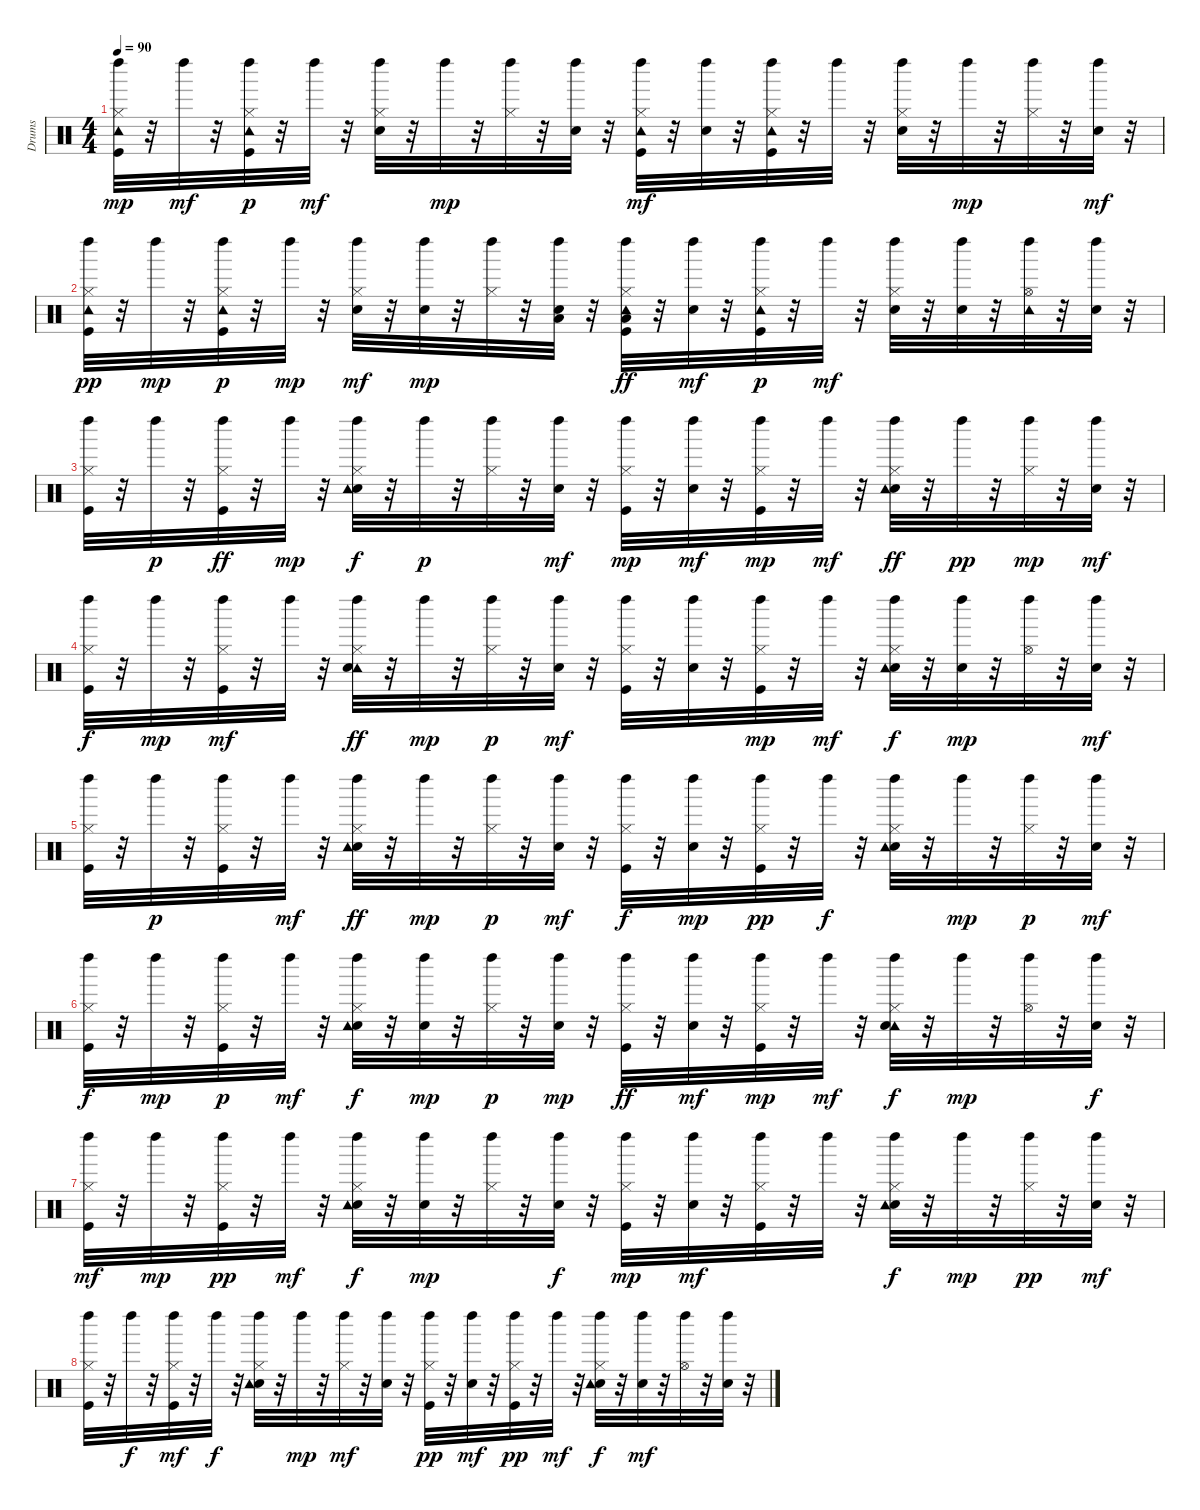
\track ("Drums" "Drums") {instrument percussion}
\staff {score}
\articulation defaults
\ts (4 4)
\tempo 90
\clef neutral
\ks c
("Kick (hit)" "Tambourine (hit)" "Left Maraca (hit)" "Hi-Hat (closed)").32{dy mp} r.32 "Left Maraca (hit)".32{dy mf} r.32 ("Left Maraca (hit)" "Kick (hit)" "Hi-Hat (closed)" "Tambourine (hit)").32{dy p} r.32 "Left Maraca (hit)".32{dy mf} r.32 ("Hi-Hat (closed)" "Electric Snare (hit)" "Left Maraca (hit)").32 r.32 "Left Maraca (hit)".32{dy mp} r.32 ("Hi-Hat (closed)" "Left Maraca (hit)").32 r.32 ("Electric Snare (hit)" "Left Maraca (hit)").32 r.32 ("Kick (hit)" "Tambourine (hit)" "Hi-Hat (closed)" "Left Maraca (hit)").32{dy mf} r.32 ("Electric Snare (hit)" "Left Maraca (hit)").32 r.32 ("Kick (hit)" "Tambourine (hit)" "Hi-Hat (closed)" "Left Maraca (hit)").32 r.32 "Left Maraca (hit)".32 r.32 ("Left Maraca (hit)" "Hi-Hat (closed)" "Electric Snare (hit)").32 r.32 "Left Maraca (hit)".32{dy mp} r.32 ("Hi-Hat (closed)" "Left Maraca (hit)").32 r.32 ("Left Maraca (hit)" "Electric Snare (hit)").32{dy mf} r.32 |
("Left Maraca (hit)" "Kick (hit)" "Tambourine (hit)" "Hi-Hat (closed)").32{dy pp} r.32 "Left Maraca (hit)".32{dy mp} r.32 ("Left Maraca (hit)" "Hi-Hat (closed)" "Kick (hit)" "Tambourine (hit)").32{dy p} r.32 "Left Maraca (hit)".32{dy mp} r.32 ("Electric Snare (hit)" "Hi-Hat (closed)" "Left Maraca (hit)").32{dy mf} r.32 ("Left Maraca (hit)" "Electric Snare (hit)").32{dy mp} r.32 ("Hi-Hat (closed)" "Left Maraca (hit)").32 r.32 ("Electric Snare (hit)" "Low Tom (hit)" "Left Maraca (hit)").32 r.32 ("Low Floor Tom (hit)" "Tambourine (hit)" "Left Maraca (hit)" "Kick (hit)" "Hi-Hat (closed)").32{dy ff} r.32 ("Electric Snare (hit)" "Left Maraca (hit)").32{dy mf} r.32 ("Kick (hit)" "Left Maraca (hit)" "Hi-Hat (closed)" "Tambourine (hit)").32{dy p} r.32 "Left Maraca (hit)".32{dy mf} r.32 ("Electric Snare (hit)" "Hi-Hat (closed)" "Left Maraca (hit)").32 r.32 ("Electric Snare (hit)" "Left Maraca (hit)").32 r.32 ("Hi-Hat (open)" "Tambourine (hit)" "Left Maraca (hit)").32 r.32 ("Electric Snare (hit)" "Left Maraca (hit)").32 r.32 |
("Kick (hit)" "Hi-Hat (closed)" "Left Maraca (hit)").32 r.32 "Left Maraca (hit)".32{dy p} r.32 ("Left Maraca (hit)" "Hi-Hat (closed)" "Kick (hit)").32{dy ff} r.32 "Left Maraca (hit)".32{dy mp} r.32 ("Electric Snare (hit)" "Hi-Hat (closed)" "Tambourine (hit)" "Left Maraca (hit)").32{dy f} r.32 "Left Maraca (hit)".32{dy p} r.32 ("Hi-Hat (closed)" "Left Maraca (hit)").32 r.32 ("Electric Snare (hit)" "Left Maraca (hit)").32{dy mf} r.32 ("Hi-Hat (closed)" "Kick (hit)" "Left Maraca (hit)").32{dy mp} r.32 ("Electric Snare (hit)" "Left Maraca (hit)").32{dy mf} r.32 ("Kick (hit)" "Hi-Hat (closed)" "Left Maraca (hit)").32{dy mp} r.32 "Left Maraca (hit)".32{dy mf} r.32 ("Electric Snare (hit)" "Tambourine (hit)" "Hi-Hat (closed)" "Left Maraca (hit)").32{dy ff} r.32 "Left Maraca (hit)".32{dy pp} r.32 ("Hi-Hat (closed)" "Left Maraca (hit)").32{dy mp} r.32 ("Electric Snare (hit)" "Left Maraca (hit)").32{dy mf} r.32 |
("Kick (hit)" "Left Maraca (hit)" "Hi-Hat (closed)").32{dy f} r.32 "Left Maraca (hit)".32{dy mp} r.32 ("Kick (hit)" "Left Maraca (hit)" "Hi-Hat (closed)").32{dy mf} r.32 "Left Maraca (hit)".32 r.32 ("Tambourine (hit)" "Left Maraca (hit)" "Hi-Hat (closed)" "Electric Snare (hit)").32{dy ff} r.32 "Left Maraca (hit)".32{dy mp} r.32 ("Hi-Hat (closed)" "Left Maraca (hit)").32{dy p} r.32 ("Left Maraca (hit)" "Electric Snare (hit)").32{dy mf} r.32 ("Hi-Hat (closed)" "Left Maraca (hit)" "Kick (hit)").32 r.32 ("Left Maraca (hit)" "Electric Snare (hit)").32 r.32 ("Hi-Hat (closed)" "Kick (hit)" "Left Maraca (hit)").32{dy mp} r.32 "Left Maraca (hit)".32{dy mf} r.32 ("Hi-Hat (closed)" "Electric Snare (hit)" "Tambourine (hit)" "Left Maraca (hit)").32{dy f} r.32 ("Electric Snare (hit)" "Left Maraca (hit)").32{dy mp} r.32 ("Hi-Hat (open)" "Left Maraca (hit)").32 r.32 ("Electric Snare (hit)" "Left Maraca (hit)").32{dy mf} r.32 |
("Hi-Hat (closed)" "Kick (hit)" "Left Maraca (hit)").32 r.32 "Left Maraca (hit)".32{dy p} r.32 ("Hi-Hat (closed)" "Kick (hit)" "Left Maraca (hit)").32 r.32 "Left Maraca (hit)".32{dy mf} r.32 ("Hi-Hat (closed)" "Electric Snare (hit)" "Tambourine (hit)" "Left Maraca (hit)").32{dy ff} r.32 "Left Maraca (hit)".32{dy mp} r.32 ("Hi-Hat (closed)" "Left Maraca (hit)").32{dy p} r.32 ("Electric Snare (hit)" "Left Maraca (hit)").32{dy mf} r.32 ("Hi-Hat (closed)" "Kick (hit)" "Left Maraca (hit)").32{dy f} r.32 ("Electric Snare (hit)" "Left Maraca (hit)").32{dy mp} r.32 ("Hi-Hat (closed)" "Kick (hit)" "Left Maraca (hit)").32{dy pp} r.32 "Left Maraca (hit)".32{dy f} r.32 ("Electric Snare (hit)" "Tambourine (hit)" "Left Maraca (hit)" "Hi-Hat (closed)").32 r.32 "Left Maraca (hit)".32{dy mp} r.32 ("Hi-Hat (closed)" "Left Maraca (hit)").32{dy p} r.32 ("Left Maraca (hit)" "Electric Snare (hit)").32{dy mf} r.32 |
("Left Maraca (hit)" "Hi-Hat (closed)" "Kick (hit)").32{dy f} r.32 "Left Maraca (hit)".32{dy mp} r.32 ("Hi-Hat (closed)" "Kick (hit)" "Left Maraca (hit)").32{dy p} r.32 "Left Maraca (hit)".32{dy mf} r.32 ("Electric Snare (hit)" "Tambourine (hit)" "Left Maraca (hit)" "Hi-Hat (closed)").32{dy f} r.32 ("Electric Snare (hit)" "Left Maraca (hit)").32{dy mp} r.32 ("Hi-Hat (closed)" "Left Maraca (hit)").32{dy p} r.32 ("Left Maraca (hit)" "Electric Snare (hit)").32{dy mp} r.32 ("Left Maraca (hit)" "Hi-Hat (closed)" "Kick (hit)").32{dy ff} r.32 ("Left Maraca (hit)" "Electric Snare (hit)").32{dy mf} r.32 ("Kick (hit)" "Hi-Hat (closed)" "Left Maraca (hit)").32{dy mp} r.32 "Left Maraca (hit)".32{dy mf} r.32 ("Tambourine (hit)" "Left Maraca (hit)" "Hi-Hat (closed)" "Electric Snare (hit)").32{dy f} r.32 "Left Maraca (hit)".32{dy mp} r.32 ("Hi-Hat (open)" "Left Maraca (hit)").32 r.32 ("Left Maraca (hit)" "Electric Snare (hit)").32{dy f} r.32 |
("Left Maraca (hit)" "Hi-Hat (closed)" "Kick (hit)").32{dy mf} r.32 "Left Maraca (hit)".32{dy mp} r.32 ("Hi-Hat (closed)" "Kick (hit)" "Left Maraca (hit)").32{dy pp} r.32 "Left Maraca (hit)".32{dy mf} r.32 ("Hi-Hat (closed)" "Electric Snare (hit)" "Left Maraca (hit)" "Tambourine (hit)").32{dy f} r.32 ("Electric Snare (hit)" "Left Maraca (hit)").32{dy mp} r.32 ("Hi-Hat (closed)" "Left Maraca (hit)").32 r.32 ("Left Maraca (hit)" "Electric Snare (hit)").32{dy f} r.32 ("Hi-Hat (closed)" "Left Maraca (hit)" "Kick (hit)").32{dy mp} r.32 ("Electric Snare (hit)" "Left Maraca (hit)").32{dy mf} r.32 ("Kick (hit)" "Left Maraca (hit)" "Hi-Hat (closed)").32 r.32 "Left Maraca (hit)".32 r.32 ("Electric Snare (hit)" "Tambourine (hit)" "Left Maraca (hit)" "Hi-Hat (closed)").32{dy f} r.32 "Left Maraca (hit)".32{dy mp} r.32 ("Hi-Hat (closed)" "Left Maraca (hit)").32{dy pp} r.32 ("Electric Snare (hit)" "Left Maraca (hit)").32{dy mf} r.32 |
("Kick (hit)" "Left Maraca (hit)" "Hi-Hat (closed)").32 r.32 "Left Maraca (hit)".32{dy f} r.32 ("Kick (hit)" "Left Maraca (hit)" "Hi-Hat (closed)").32{dy mf} r.32 "Left Maraca (hit)".32{dy f} r.32 ("Electric Snare (hit)" "Tambourine (hit)" "Left Maraca (hit)" "Hi-Hat (closed)").32 r.32 "Left Maraca (hit)".32{dy mp} r.32 ("Left Maraca (hit)" "Hi-Hat (closed)").32{dy mf} r.32 ("Electric Snare (hit)" "Left Maraca (hit)").32 r.32 ("Kick (hit)" "Left Maraca (hit)" "Hi-Hat (closed)").32{dy pp} r.32 ("Electric Snare (hit)" "Left Maraca (hit)").32{dy mf} r.32 ("Hi-Hat (closed)" "Kick (hit)" "Left Maraca (hit)").32{dy pp} r.32 "Left Maraca (hit)".32{dy mf} r.32 ("Hi-Hat (closed)" "Electric Snare (hit)" "Tambourine (hit)" "Left Maraca (hit)").32{dy f} r.32 ("Electric Snare (hit)" "Left Maraca (hit)").32{dy mf} r.32 ("Hi-Hat (open)" "Left Maraca (hit)").32 r.32 ("Left Maraca (hit)" "Electric Snare (hit)").32 r.32
